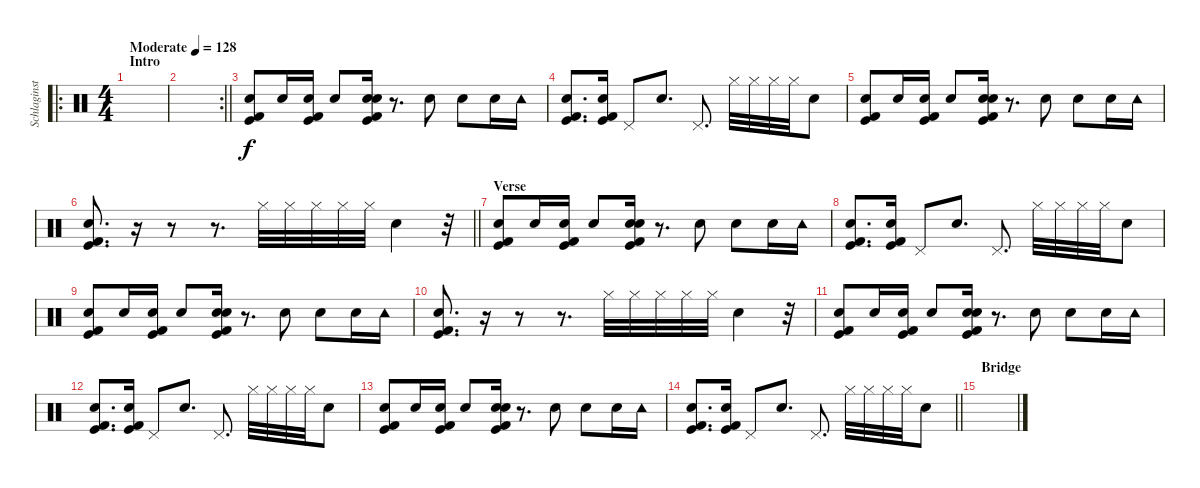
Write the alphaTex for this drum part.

\track ("Schlaginstrumente - Auswahl" "Schlaginst") {instrument percussion}
\staff {score}
\articulation defaults
\ro
\ts (4 4)
\section ("" "Intro")
\tempo (128 "Moderate")
\clef neutral
\ks c
|
\rc 2
\barLineRight lightlight
|
\section ("" "")
("Kick (hit) 2" "Electric Snare (hit)" "Kick (hit)").8 "Hand Clap (hit)".16 ("Kick (hit) 2" "Electric Snare (hit)" "Kick (hit)").16 "Electric Snare (hit)".8 ("Hand Clap (hit)" "Kick (hit) 2" "Electric Snare (hit)" "Kick (hit)").16 r.8{d} "Hand Clap (hit)".8 "Electric Snare (hit)".8 "Hand Clap (hit)".16 "Tambourine (hit)".16 |
("Kick (hit)" "Electric Snare (hit)" "Kick (hit) 2").8{d} ("Kick (hit)" "Electric Snare (hit)" "Kick (hit) 2").16 "Pedal Hi-Hat (hit)".8 "Electric Snare (hit)".8{d} "Pedal Hi-Hat (hit)".8{d} "Hi-Hat (closed)".32 "Hi-Hat (closed)".32 "Hi-Hat (closed)".32 "Hi-Hat (closed)".32 "Electric Snare (hit)".8 |
("Kick (hit) 2" "Electric Snare (hit)" "Kick (hit)").8 "Hand Clap (hit)".16 ("Kick (hit) 2" "Electric Snare (hit)" "Kick (hit)").16 "Electric Snare (hit)".8 ("Hand Clap (hit)" "Kick (hit) 2" "Electric Snare (hit)" "Kick (hit)").16 r.8{d} "Hand Clap (hit)".8 "Electric Snare (hit)".8 "Hand Clap (hit)".16 "Tambourine (hit)".16 |
\barLineRight lightlight
("Kick (hit)" "Electric Snare (hit)" "Kick (hit) 2").8{d} r.16 r.8 r.8{d} "Hi-Hat (closed)".32 "Hi-Hat (closed)".32 "Hi-Hat (closed)".32 "Hi-Hat (closed)".32 "Hi-Hat (closed)".32 "Electric Snare (hit)".4 r.32 |
\section ("" "Verse")
("Kick (hit) 2" "Electric Snare (hit)" "Kick (hit)").8 "Hand Clap (hit)".16 ("Kick (hit) 2" "Electric Snare (hit)" "Kick (hit)").16 "Electric Snare (hit)".8 ("Hand Clap (hit)" "Kick (hit) 2" "Electric Snare (hit)" "Kick (hit)").16 r.8{d} "Hand Clap (hit)".8 "Electric Snare (hit)".8 "Hand Clap (hit)".16 "Tambourine (hit)".16 |
("Kick (hit)" "Electric Snare (hit)" "Kick (hit) 2").8{d} ("Kick (hit)" "Electric Snare (hit)" "Kick (hit) 2").16 "Pedal Hi-Hat (hit)".8 "Electric Snare (hit)".8{d} "Pedal Hi-Hat (hit)".8{d} "Hi-Hat (closed)".32 "Hi-Hat (closed)".32 "Hi-Hat (closed)".32 "Hi-Hat (closed)".32 "Electric Snare (hit)".8 |
("Kick (hit) 2" "Electric Snare (hit)" "Kick (hit)").8 "Hand Clap (hit)".16 ("Kick (hit) 2" "Electric Snare (hit)" "Kick (hit)").16 "Electric Snare (hit)".8 ("Hand Clap (hit)" "Kick (hit) 2" "Electric Snare (hit)" "Kick (hit)").16 r.8{d} "Hand Clap (hit)".8 "Electric Snare (hit)".8 "Hand Clap (hit)".16 "Tambourine (hit)".16 |
("Kick (hit)" "Electric Snare (hit)" "Kick (hit) 2").8{d} r.16 r.8 r.8{d} "Hi-Hat (closed)".32 "Hi-Hat (closed)".32 "Hi-Hat (closed)".32 "Hi-Hat (closed)".32 "Hi-Hat (closed)".32 "Electric Snare (hit)".4 r.32 |
("Kick (hit) 2" "Electric Snare (hit)" "Kick (hit)").8 "Hand Clap (hit)".16 ("Kick (hit) 2" "Electric Snare (hit)" "Kick (hit)").16 "Electric Snare (hit)".8 ("Hand Clap (hit)" "Kick (hit) 2" "Electric Snare (hit)" "Kick (hit)").16 r.8{d} "Hand Clap (hit)".8 "Electric Snare (hit)".8 "Hand Clap (hit)".16 "Tambourine (hit)".16 |
("Kick (hit)" "Electric Snare (hit)" "Kick (hit) 2").8{d} ("Kick (hit)" "Electric Snare (hit)" "Kick (hit) 2").16 "Pedal Hi-Hat (hit)".8 "Electric Snare (hit)".8{d} "Pedal Hi-Hat (hit)".8{d} "Hi-Hat (closed)".32 "Hi-Hat (closed)".32 "Hi-Hat (closed)".32 "Hi-Hat (closed)".32 "Electric Snare (hit)".8 |
("Kick (hit) 2" "Electric Snare (hit)" "Kick (hit)").8 "Hand Clap (hit)".16 ("Kick (hit) 2" "Electric Snare (hit)" "Kick (hit)").16 "Electric Snare (hit)".8 ("Hand Clap (hit)" "Kick (hit) 2" "Electric Snare (hit)" "Kick (hit)").16 r.8{d} "Hand Clap (hit)".8 "Electric Snare (hit)".8 "Hand Clap (hit)".16 "Tambourine (hit)".16 |
\barLineRight lightlight
("Kick (hit)" "Electric Snare (hit)" "Kick (hit) 2").8{d} ("Kick (hit)" "Electric Snare (hit)" "Kick (hit) 2").16 "Pedal Hi-Hat (hit)".8 "Electric Snare (hit)".8{d} "Pedal Hi-Hat (hit)".8{d} "Hi-Hat (closed)".32 "Hi-Hat (closed)".32 "Hi-Hat (closed)".32 "Hi-Hat (closed)".32 "Electric Snare (hit)".8 |
\section ("" "Bridge")
